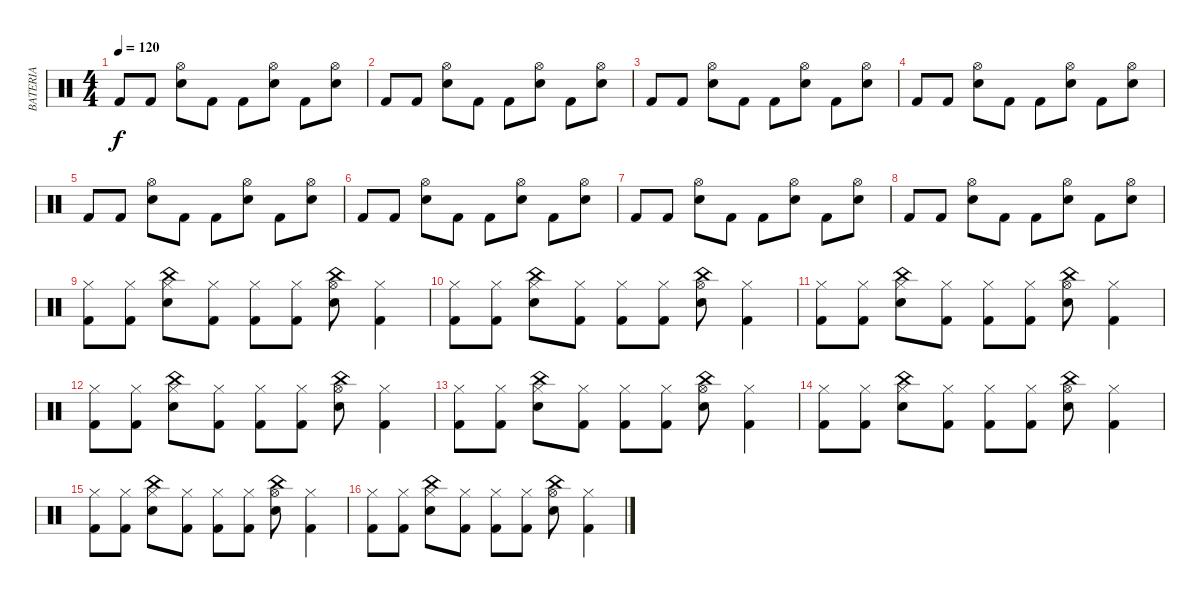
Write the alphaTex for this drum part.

\track ("BATERIA" "BATERIA") {instrument percussion}
\staff {score}
\articulation defaults
\ts (4 4)
\tempo 120
\clef neutral
\ks c "Kick (hit) 2".8{dy f} "Kick (hit) 2".8
("Snare (hit) 2" "Hi-Hat (open)").8 "Kick (hit) 2".8 "Kick (hit) 2".8 ("Snare (hit) 2" "Hi-Hat (open)").8 "Kick (hit) 2".8 ("Snare (hit) 2" "Hi-Hat (open)").8 |
"Kick (hit) 2".8 "Kick (hit) 2".8 ("Snare (hit) 2" "Hi-Hat (open)").8 "Kick (hit) 2".8 "Kick (hit) 2".8 ("Snare (hit) 2" "Hi-Hat (open)").8 "Kick (hit) 2".8 ("Snare (hit) 2" "Hi-Hat (open)").8 |
"Kick (hit) 2".8 "Kick (hit) 2".8 ("Snare (hit) 2" "Hi-Hat (open)").8 "Kick (hit) 2".8 "Kick (hit) 2".8 ("Snare (hit) 2" "Hi-Hat (open)").8 "Kick (hit) 2".8 ("Snare (hit) 2" "Hi-Hat (open)").8 |
"Kick (hit) 2".8 "Kick (hit) 2".8 ("Snare (hit) 2" "Hi-Hat (open)").8 "Kick (hit) 2".8 "Kick (hit) 2".8 ("Snare (hit) 2" "Hi-Hat (open)").8 "Kick (hit) 2".8 ("Snare (hit) 2" "Hi-Hat (open)").8 |
"Kick (hit) 2".8 "Kick (hit) 2".8 ("Snare (hit) 2" "Hi-Hat (open)").8 "Kick (hit) 2".8 "Kick (hit) 2".8 ("Snare (hit) 2" "Hi-Hat (open)").8 "Kick (hit) 2".8 ("Snare (hit) 2" "Hi-Hat (open)").8 |
"Kick (hit) 2".8 "Kick (hit) 2".8 ("Snare (hit) 2" "Hi-Hat (open)").8 "Kick (hit) 2".8 "Kick (hit) 2".8 ("Snare (hit) 2" "Hi-Hat (open)").8 "Kick (hit) 2".8 ("Snare (hit) 2" "Hi-Hat (open)").8 |
"Kick (hit) 2".8 "Kick (hit) 2".8 ("Snare (hit) 2" "Hi-Hat (open)").8 "Kick (hit) 2".8 "Kick (hit) 2".8 ("Snare (hit) 2" "Hi-Hat (open)").8 "Kick (hit) 2".8 ("Snare (hit) 2" "Hi-Hat (open)").8 |
"Kick (hit) 2".8 "Kick (hit) 2".8 ("Snare (hit) 2" "Hi-Hat (open)").8 "Kick (hit) 2".8 "Kick (hit) 2".8 ("Snare (hit) 2" "Hi-Hat (open)").8 "Kick (hit) 2".8 ("Snare (hit) 2" "Hi-Hat (open)").8 |
("Hi-Hat (closed)" "Kick (hit) 2").8 ("Hi-Hat (closed)" "Kick (hit) 2").8 ("Snare (hit) 2" "Hi-Hat (closed)" "China (hit)").8 ("Kick (hit) 2" "Hi-Hat (closed)").8 ("Kick (hit) 2" "Hi-Hat (closed)").8 ("Kick (hit) 2" "Hi-Hat (closed)").8 ("Snare (hit) 2" "Hi-Hat (open)" "China (hit)").8 ("Kick (hit) 2" "Hi-Hat (closed)").4 |
("Hi-Hat (closed)" "Kick (hit) 2").8 ("Hi-Hat (closed)" "Kick (hit) 2").8 ("Snare (hit) 2" "Hi-Hat (closed)" "China (hit)").8 ("Kick (hit) 2" "Hi-Hat (closed)").8 ("Kick (hit) 2" "Hi-Hat (closed)").8 ("Kick (hit) 2" "Hi-Hat (closed)").8 ("Snare (hit) 2" "Hi-Hat (open)" "China (hit)").8 ("Kick (hit) 2" "Hi-Hat (closed)").4 |
("Hi-Hat (closed)" "Kick (hit) 2").8 ("Hi-Hat (closed)" "Kick (hit) 2").8 ("Snare (hit) 2" "Hi-Hat (closed)" "China (hit)").8 ("Kick (hit) 2" "Hi-Hat (closed)").8 ("Kick (hit) 2" "Hi-Hat (closed)").8 ("Kick (hit) 2" "Hi-Hat (closed)").8 ("Snare (hit) 2" "Hi-Hat (open)" "China (hit)").8 ("Kick (hit) 2" "Hi-Hat (closed)").4 |
("Hi-Hat (closed)" "Kick (hit) 2").8 ("Hi-Hat (closed)" "Kick (hit) 2").8 ("Snare (hit) 2" "Hi-Hat (closed)" "China (hit)").8 ("Kick (hit) 2" "Hi-Hat (closed)").8 ("Kick (hit) 2" "Hi-Hat (closed)").8 ("Kick (hit) 2" "Hi-Hat (closed)").8 ("Snare (hit) 2" "Hi-Hat (open)" "China (hit)").8 ("Kick (hit) 2" "Hi-Hat (closed)").4 |
("Hi-Hat (closed)" "Kick (hit) 2").8 ("Hi-Hat (closed)" "Kick (hit) 2").8 ("Snare (hit) 2" "Hi-Hat (closed)" "China (hit)").8 ("Kick (hit) 2" "Hi-Hat (closed)").8 ("Kick (hit) 2" "Hi-Hat (closed)").8 ("Kick (hit) 2" "Hi-Hat (closed)").8 ("Snare (hit) 2" "Hi-Hat (open)" "China (hit)").8 ("Kick (hit) 2" "Hi-Hat (closed)").4 |
("Hi-Hat (closed)" "Kick (hit) 2").8 ("Hi-Hat (closed)" "Kick (hit) 2").8 ("Snare (hit) 2" "Hi-Hat (closed)" "China (hit)").8 ("Kick (hit) 2" "Hi-Hat (closed)").8 ("Kick (hit) 2" "Hi-Hat (closed)").8 ("Kick (hit) 2" "Hi-Hat (closed)").8 ("Snare (hit) 2" "Hi-Hat (open)" "China (hit)").8 ("Kick (hit) 2" "Hi-Hat (closed)").4 |
("Hi-Hat (closed)" "Kick (hit) 2").8 ("Hi-Hat (closed)" "Kick (hit) 2").8 ("Snare (hit) 2" "Hi-Hat (closed)" "China (hit)").8 ("Kick (hit) 2" "Hi-Hat (closed)").8 ("Kick (hit) 2" "Hi-Hat (closed)").8 ("Kick (hit) 2" "Hi-Hat (closed)").8 ("Snare (hit) 2" "Hi-Hat (open)" "China (hit)").8 ("Kick (hit) 2" "Hi-Hat (closed)").4 |
("Hi-Hat (closed)" "Kick (hit) 2").8 ("Hi-Hat (closed)" "Kick (hit) 2").8 ("Snare (hit) 2" "Hi-Hat (closed)" "China (hit)").8 ("Kick (hit) 2" "Hi-Hat (closed)").8 ("Kick (hit) 2" "Hi-Hat (closed)").8 ("Kick (hit) 2" "Hi-Hat (closed)").8 ("Snare (hit) 2" "Hi-Hat (open)" "China (hit)").8 ("Kick (hit) 2" "Hi-Hat (closed)").4
